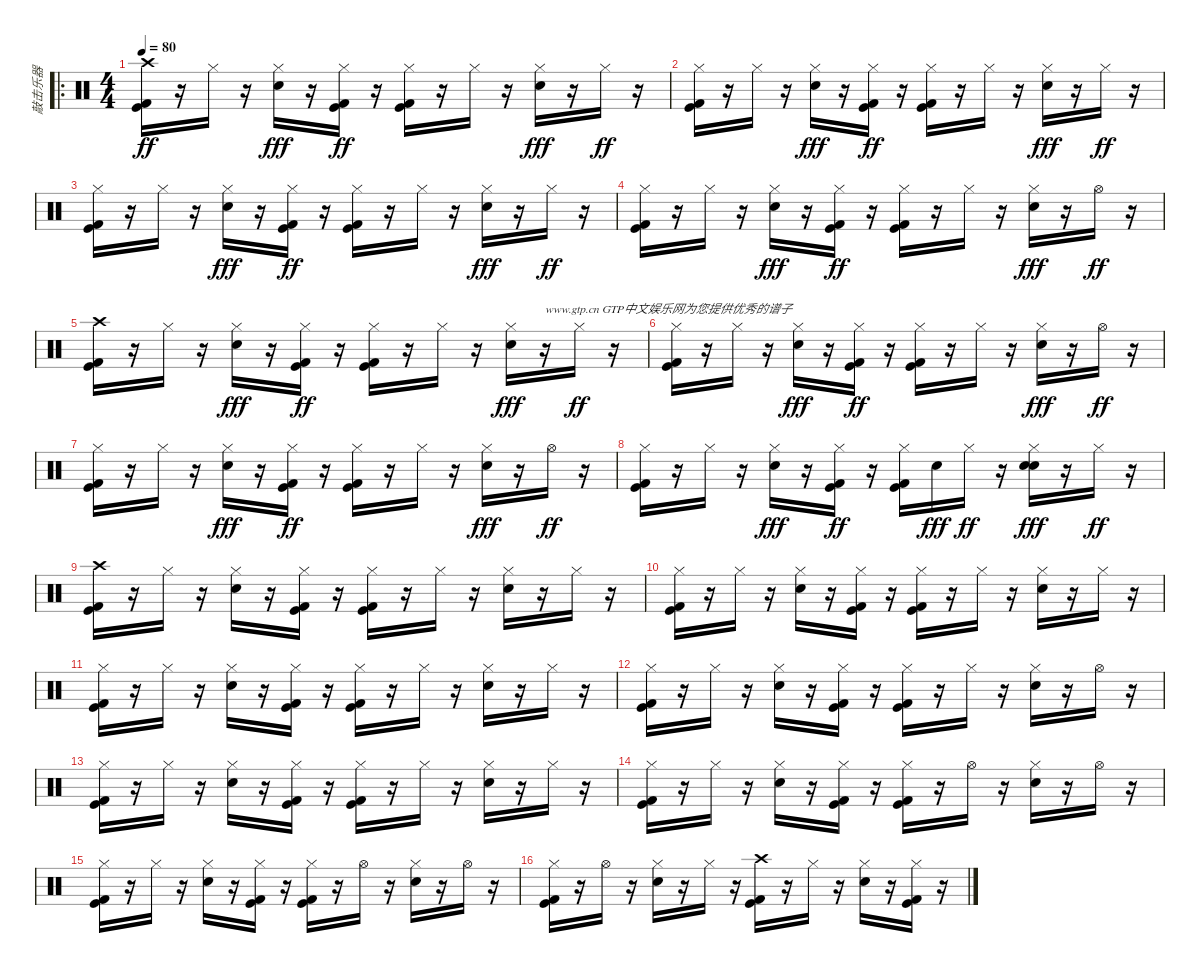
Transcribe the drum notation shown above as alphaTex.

\track ("敲击乐器" "敲击乐器") {instrument percussion}
\staff {score}
\articulation defaults
\ro
\ts (4 4)
\tempo 80
\clef neutral
\ks c
("Crash high (hit)" "Kick (hit)" "Kick (hit) 2").16{dy ff} r.16 "Hi-Hat (closed)".16 r.16 ("Hi-Hat (closed)" "Electric Snare (hit)").16{dy fff} r.16 ("Kick (hit)" "Kick (hit) 2" "Hi-Hat (closed)").16{dy ff} r.16 ("Kick (hit)" "Kick (hit) 2" "Hi-Hat (closed)").16 r.16 "Hi-Hat (closed)".16 r.16 ("Hi-Hat (closed)" "Electric Snare (hit)").16{dy fff} r.16 "Hi-Hat (closed)".16{dy ff} r.16 |
("Kick (hit)" "Kick (hit) 2" "Hi-Hat (closed)").16 r.16 "Hi-Hat (closed)".16 r.16 ("Hi-Hat (closed)" "Electric Snare (hit)").16{dy fff} r.16 ("Kick (hit)" "Kick (hit) 2" "Hi-Hat (closed)").16{dy ff} r.16 ("Kick (hit)" "Kick (hit) 2" "Hi-Hat (closed)").16 r.16 "Hi-Hat (closed)".16 r.16 ("Hi-Hat (closed)" "Electric Snare (hit)").16{dy fff} r.16 "Hi-Hat (closed)".16{dy ff} r.16 |
("Kick (hit)" "Kick (hit) 2" "Hi-Hat (closed)").16 r.16 "Hi-Hat (closed)".16 r.16 ("Hi-Hat (closed)" "Electric Snare (hit)").16{dy fff} r.16 ("Kick (hit)" "Kick (hit) 2" "Hi-Hat (closed)").16{dy ff} r.16 ("Kick (hit)" "Kick (hit) 2" "Hi-Hat (closed)").16 r.16 "Hi-Hat (closed)".16 r.16 ("Hi-Hat (closed)" "Electric Snare (hit)").16{dy fff} r.16 "Hi-Hat (closed)".16{dy ff} r.16 |
("Kick (hit)" "Kick (hit) 2" "Hi-Hat (closed)").16 r.16 "Hi-Hat (closed)".16 r.16 ("Hi-Hat (closed)" "Electric Snare (hit)").16{dy fff} r.16 ("Kick (hit)" "Kick (hit) 2" "Hi-Hat (closed)").16{dy ff} r.16 ("Kick (hit)" "Kick (hit) 2" "Hi-Hat (closed)").16 r.16 "Hi-Hat (closed)".16 r.16 ("Hi-Hat (closed)" "Electric Snare (hit)").16{dy fff} r.16 "Hi-Hat (open)".16{dy ff} r.16 |
("Crash high (hit)" "Kick (hit)" "Kick (hit) 2").16 r.16 "Hi-Hat (closed)".16 r.16 ("Hi-Hat (closed)" "Electric Snare (hit)").16{dy fff} r.16 ("Kick (hit)" "Kick (hit) 2" "Hi-Hat (closed)").16{dy ff} r.16 ("Kick (hit)" "Kick (hit) 2" "Hi-Hat (closed)").16 r.16 "Hi-Hat (closed)".16 r.16 ("Hi-Hat (closed)" "Electric Snare (hit)").16{dy fff} r.16{txt "www.gtp.cn GTP中文娱乐网为您提供优秀的谱子"} "Hi-Hat (closed)".16{dy ff} r.16 |
("Kick (hit)" "Kick (hit) 2" "Hi-Hat (closed)").16 r.16 "Hi-Hat (closed)".16 r.16 ("Hi-Hat (closed)" "Electric Snare (hit)").16{dy fff} r.16 ("Kick (hit)" "Kick (hit) 2" "Hi-Hat (closed)").16{dy ff} r.16 ("Kick (hit)" "Kick (hit) 2" "Hi-Hat (closed)").16 r.16 "Hi-Hat (closed)".16 r.16 ("Hi-Hat (closed)" "Electric Snare (hit)").16{dy fff} r.16 "Hi-Hat (open)".16{dy ff} r.16 |
("Kick (hit)" "Kick (hit) 2" "Hi-Hat (closed)").16 r.16 "Hi-Hat (closed)".16 r.16 ("Hi-Hat (closed)" "Electric Snare (hit)").16{dy fff} r.16 ("Kick (hit)" "Kick (hit) 2" "Hi-Hat (closed)").16{dy ff} r.16 ("Kick (hit)" "Kick (hit) 2" "Hi-Hat (closed)").16 r.16 "Hi-Hat (closed)".16 r.16 ("Hi-Hat (closed)" "Electric Snare (hit)").16{dy fff} r.16 "Hi-Hat (open)".16{dy ff} r.16 |
("Kick (hit)" "Kick (hit) 2" "Hi-Hat (closed)").16 r.16 "Hi-Hat (closed)".16 r.16 ("Hi-Hat (closed)" "Electric Snare (hit)").16{dy fff} r.16 ("Kick (hit)" "Kick (hit) 2" "Hi-Hat (closed)").16{dy ff} r.16 ("Kick (hit)" "Kick (hit) 2" "Hi-Hat (closed)").16 "Electric Snare (hit)".16{dy fff} "Hi-Hat (closed)".16{dy ff} r.16 ("Electric Snare (hit)" "Hi-Hat (closed)" "Electric Snare (hit)").16{dy fff} r.16 "Hi-Hat (closed)".16{dy ff} r.16 |
("Crash high (hit)" "Kick (hit)" "Kick (hit) 2").16 r.16 "Hi-Hat (closed)".16 r.16 ("Electric Snare (hit)" "Hi-Hat (closed)").16 r.16 ("Kick (hit)" "Kick (hit) 2" "Hi-Hat (closed)").16 r.16 ("Kick (hit)" "Kick (hit) 2" "Hi-Hat (closed)").16 r.16 "Hi-Hat (closed)".16 r.16 ("Electric Snare (hit)" "Hi-Hat (closed)").16 r.16 "Hi-Hat (closed)".16 r.16 |
("Kick (hit) 2" "Kick (hit)" "Hi-Hat (closed)").16 r.16 "Hi-Hat (closed)".16 r.16 ("Electric Snare (hit)" "Hi-Hat (closed)").16 r.16 ("Kick (hit) 2" "Kick (hit)" "Hi-Hat (closed)").16 r.16 ("Kick (hit) 2" "Kick (hit)" "Hi-Hat (closed)").16 r.16 "Hi-Hat (closed)".16 r.16 ("Electric Snare (hit)" "Hi-Hat (closed)").16 r.16 "Hi-Hat (closed)".16 r.16 |
("Kick (hit)" "Kick (hit) 2" "Hi-Hat (closed)").16 r.16 "Hi-Hat (closed)".16 r.16 ("Electric Snare (hit)" "Hi-Hat (closed)").16 r.16 ("Kick (hit)" "Kick (hit) 2" "Hi-Hat (closed)").16 r.16 ("Kick (hit)" "Kick (hit) 2" "Hi-Hat (closed)").16 r.16 "Hi-Hat (closed)".16 r.16 ("Electric Snare (hit)" "Hi-Hat (closed)").16 r.16 "Hi-Hat (closed)".16 r.16 |
("Kick (hit) 2" "Kick (hit)" "Hi-Hat (closed)").16 r.16 "Hi-Hat (closed)".16 r.16 ("Electric Snare (hit)" "Hi-Hat (closed)").16 r.16 ("Kick (hit) 2" "Kick (hit)" "Hi-Hat (closed)").16 r.16 ("Kick (hit) 2" "Kick (hit)" "Hi-Hat (closed)").16 r.16 "Hi-Hat (closed)".16 r.16 ("Electric Snare (hit)" "Hi-Hat (closed)").16 r.16 "Hi-Hat (open)".16 r.16 |
("Kick (hit)" "Kick (hit) 2" "Hi-Hat (closed)").16 r.16 "Hi-Hat (closed)".16 r.16 ("Electric Snare (hit)" "Hi-Hat (closed)").16 r.16 ("Kick (hit)" "Kick (hit) 2" "Hi-Hat (closed)").16 r.16 ("Kick (hit)" "Kick (hit) 2" "Hi-Hat (closed)").16 r.16 "Hi-Hat (closed)".16 r.16 ("Electric Snare (hit)" "Hi-Hat (closed)").16 r.16 "Hi-Hat (closed)".16 r.16 |
("Kick (hit) 2" "Kick (hit)" "Hi-Hat (closed)").16 r.16 "Hi-Hat (closed)".16 r.16 ("Electric Snare (hit)" "Hi-Hat (closed)").16 r.16 ("Kick (hit) 2" "Kick (hit)" "Hi-Hat (closed)").16 r.16 ("Kick (hit) 2" "Kick (hit)" "Hi-Hat (closed)").16 r.16 "Hi-Hat (open)".16 r.16 ("Electric Snare (hit)" "Hi-Hat (closed)").16 r.16 "Hi-Hat (open)".16 r.16 |
("Kick (hit) 2" "Kick (hit)" "Hi-Hat (closed)").16 r.16 "Hi-Hat (closed)".16 r.16 ("Electric Snare (hit)" "Hi-Hat (closed)").16 r.16 ("Kick (hit) 2" "Kick (hit)" "Hi-Hat (closed)").16 r.16 ("Kick (hit) 2" "Kick (hit)" "Hi-Hat (closed)").16 r.16 "Hi-Hat (open)".16 r.16 ("Electric Snare (hit)" "Hi-Hat (closed)").16 r.16 "Hi-Hat (open)".16 r.16 |
("Kick (hit)" "Kick (hit) 2" "Hi-Hat (closed)").16 r.16 "Hi-Hat (open)".16 r.16 ("Electric Snare (hit)" "Hi-Hat (closed)").16 r.16 "Hi-Hat (closed)".16 r.16 ("Crash high (hit)" "Kick (hit)" "Kick (hit) 2").16 r.16 "Hi-Hat (closed)".16 r.16 ("Electric Snare (hit)" "Hi-Hat (closed)").16 r.16 ("Kick (hit)" "Kick (hit) 2" "Hi-Hat (closed)").16 r.16
